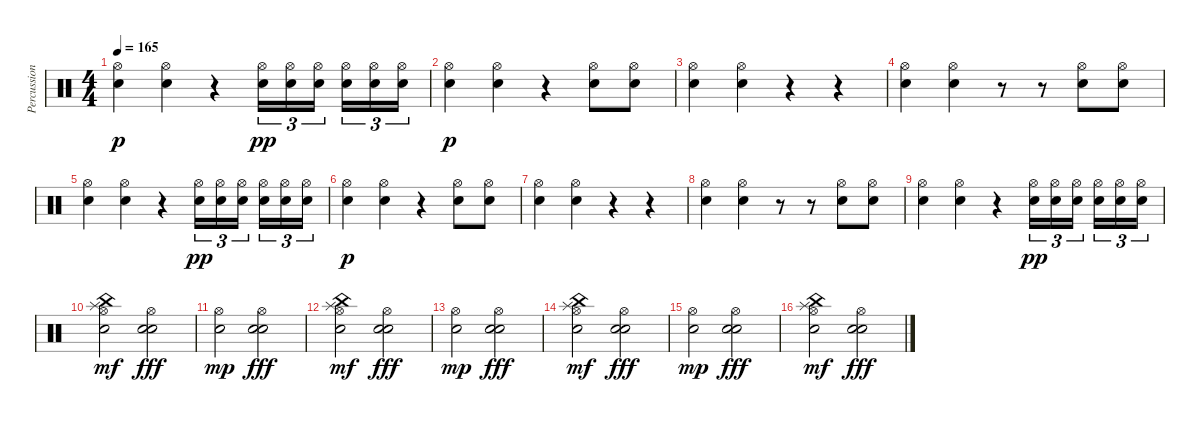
\track ("Percussion" "Percussion") {instrument percussion}
\staff {score}
\articulation defaults
\ts (4 4)
\tempo 165
\clef neutral
\ks c
("Hi-Hat (open)" "Electric Snare (hit)").4{dy p} ("Hi-Hat (open)" "Electric Snare (hit)").4 r.4 ("Hi-Hat (open)" "Electric Snare (hit)").16{tu (3 2) dy pp} ("Hi-Hat (open)" "Electric Snare (hit)").16{tu (3 2)} ("Hi-Hat (open)" "Electric Snare (hit)").16{tu (3 2) beam splitsecondary} ("Hi-Hat (open)" "Electric Snare (hit)").16{tu (3 2)} ("Hi-Hat (open)" "Electric Snare (hit)").16{tu (3 2)} ("Hi-Hat (open)" "Electric Snare (hit)").16{tu (3 2)} |
("Hi-Hat (open)" "Electric Snare (hit)").4{dy p} ("Hi-Hat (open)" "Electric Snare (hit)").4 r.4 ("Hi-Hat (open)" "Electric Snare (hit)").8 ("Hi-Hat (open)" "Electric Snare (hit)").8 |
("Hi-Hat (open)" "Electric Snare (hit)").4 ("Hi-Hat (open)" "Electric Snare (hit)").4 r.4 r.4 |
("Hi-Hat (open)" "Electric Snare (hit)").4 ("Hi-Hat (open)" "Electric Snare (hit)").4 r.8 r.8 ("Hi-Hat (open)" "Electric Snare (hit)").8 ("Hi-Hat (open)" "Electric Snare (hit)").8 |
("Hi-Hat (open)" "Electric Snare (hit)").4 ("Hi-Hat (open)" "Electric Snare (hit)").4 r.4 ("Hi-Hat (open)" "Electric Snare (hit)").16{tu (3 2) dy pp} ("Hi-Hat (open)" "Electric Snare (hit)").16{tu (3 2)} ("Hi-Hat (open)" "Electric Snare (hit)").16{tu (3 2) beam splitsecondary} ("Hi-Hat (open)" "Electric Snare (hit)").16{tu (3 2)} ("Hi-Hat (open)" "Electric Snare (hit)").16{tu (3 2)} ("Hi-Hat (open)" "Electric Snare (hit)").16{tu (3 2)} |
("Hi-Hat (open)" "Electric Snare (hit)").4{dy p} ("Hi-Hat (open)" "Electric Snare (hit)").4 r.4 ("Hi-Hat (open)" "Electric Snare (hit)").8 ("Hi-Hat (open)" "Electric Snare (hit)").8 |
("Hi-Hat (open)" "Electric Snare (hit)").4 ("Hi-Hat (open)" "Electric Snare (hit)").4 r.4 r.4 |
("Hi-Hat (open)" "Electric Snare (hit)").4 ("Hi-Hat (open)" "Electric Snare (hit)").4 r.8 r.8 ("Hi-Hat (open)" "Electric Snare (hit)").8 ("Hi-Hat (open)" "Electric Snare (hit)").8 |
("Hi-Hat (open)" "Electric Snare (hit)").4 ("Hi-Hat (open)" "Electric Snare (hit)").4 r.4 ("Hi-Hat (open)" "Electric Snare (hit)").16{tu (3 2) dy pp} ("Hi-Hat (open)" "Electric Snare (hit)").16{tu (3 2)} ("Hi-Hat (open)" "Electric Snare (hit)").16{tu (3 2) beam splitsecondary} ("Hi-Hat (open)" "Electric Snare (hit)").16{tu (3 2)} ("Hi-Hat (open)" "Electric Snare (hit)").16{tu (3 2)} ("Hi-Hat (open)" "Electric Snare (hit)").16{tu (3 2)} |
("China (hit)" "Splash (hit)" "Hi-Hat (open)" "Electric Snare (hit)").2{dy mf} ("Hi-Hat (open)" "Electric Snare (hit)" "Snare (hit) 2").2{dy fff} |
("Hi-Hat (open)" "Electric Snare (hit)").2{dy mp} ("Hi-Hat (open)" "Electric Snare (hit)" "Snare (hit) 2").2{dy fff} |
("China (hit)" "Splash (hit)" "Hi-Hat (open)" "Electric Snare (hit)").2{dy mf} ("Hi-Hat (open)" "Electric Snare (hit)" "Snare (hit) 2").2{dy fff} |
("Hi-Hat (open)" "Electric Snare (hit)").2{dy mp} ("Hi-Hat (open)" "Electric Snare (hit)" "Snare (hit) 2").2{dy fff} |
("China (hit)" "Splash (hit)" "Hi-Hat (open)" "Electric Snare (hit)").2{dy mf} ("Hi-Hat (open)" "Electric Snare (hit)" "Snare (hit) 2").2{dy fff} |
("Hi-Hat (open)" "Electric Snare (hit)").2{dy mp} ("Hi-Hat (open)" "Electric Snare (hit)" "Snare (hit) 2").2{dy fff} |
("China (hit)" "Splash (hit)" "Hi-Hat (open)" "Electric Snare (hit)").2{dy mf} ("Hi-Hat (open)" "Electric Snare (hit)" "Snare (hit) 2").2{dy fff}
